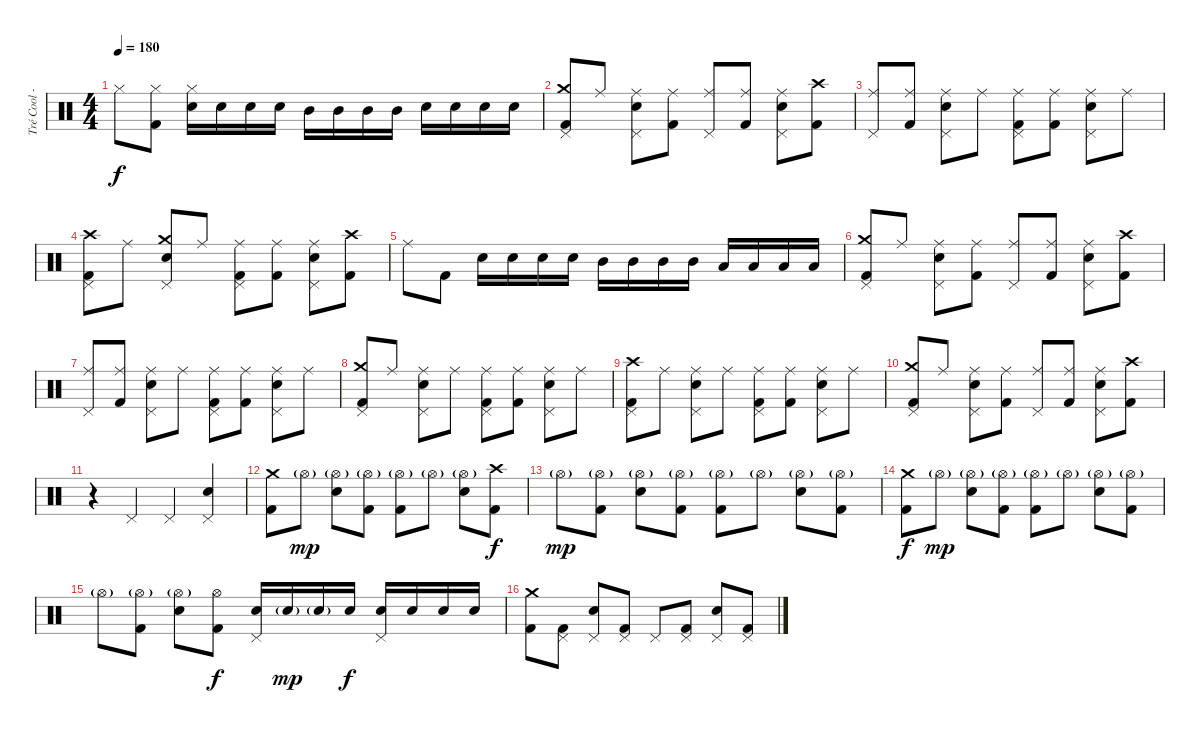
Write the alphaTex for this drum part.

\track ("Tré Cool - Drums" "Tré Cool -") {instrument percussion}
\staff {score}
\articulation defaults
\ts (4 4)
\tempo 180
\clef neutral
\ks c "Hi-Hat (closed)".8{dy f}
("Hi-Hat (closed)" "Kick (hit) 2").8 ("Hi-Hat (closed)" "Electric Snare (hit)").16 "Electric Snare (hit)".16 "Electric Snare (hit)".16 "Electric Snare (hit)".16 "Mid Tom (hit)".16 "Mid Tom (hit)".16 "Mid Tom (hit)".16 "Mid Tom (hit)".16 "Electric Snare (hit)".16 "Electric Snare (hit)".16 "Electric Snare (hit)".16 "Electric Snare (hit)".16 |
("Crash medium (hit)" "Pedal Hi-Hat (hit)" "Kick (hit) 2").8 "Ride (middle)".8 ("Ride (middle)" "Pedal Hi-Hat (hit)" "Electric Snare (hit)").8 ("Ride (middle)" "Kick (hit) 2").8 ("Ride (middle)" "Pedal Hi-Hat (hit)").8 ("Ride (middle)" "Kick (hit) 2").8 ("Ride (middle)" "Pedal Hi-Hat (hit)" "Electric Snare (hit)").8 ("Crash high (hit)" "Kick (hit) 2").8 |
("Ride (middle)" "Pedal Hi-Hat (hit)").8 ("Ride (middle)" "Kick (hit) 2").8 ("Ride (middle)" "Pedal Hi-Hat (hit)" "Electric Snare (hit)").8 "Ride (middle)".8 ("Ride (middle)" "Pedal Hi-Hat (hit)" "Kick (hit) 2").8 ("Ride (middle)" "Kick (hit) 2").8 ("Ride (middle)" "Pedal Hi-Hat (hit)" "Electric Snare (hit)").8 "Ride (middle)".8 |
("Crash high (hit)" "Pedal Hi-Hat (hit)" "Kick (hit) 2").8 "Ride (middle)".8 ("Crash medium (hit)" "Pedal Hi-Hat (hit)" "Electric Snare (hit)").8 "Ride (middle)".8 ("Ride (middle)" "Pedal Hi-Hat (hit)" "Kick (hit) 2").8 ("Ride (middle)" "Kick (hit) 2").8 ("Ride (middle)" "Pedal Hi-Hat (hit)" "Electric Snare (hit)").8 ("Crash high (hit)" "Kick (hit) 2").8 |
"Ride (middle)".8 "Kick (hit) 2".8 "Electric Snare (hit)".16 "Electric Snare (hit)".16 "Electric Snare (hit)".16 "Electric Snare (hit)".16 "Mid Tom (hit)".16 "Mid Tom (hit)".16 "Mid Tom (hit)".16 "Mid Tom (hit)".16 "Low Tom (hit)".16 "Low Tom (hit)".16 "Low Tom (hit)".16 "Low Tom (hit)".16 |
("Crash medium (hit)" "Pedal Hi-Hat (hit)" "Kick (hit) 2").8 "Ride (middle)".8 ("Ride (middle)" "Pedal Hi-Hat (hit)" "Electric Snare (hit)").8 ("Ride (middle)" "Kick (hit) 2").8 ("Ride (middle)" "Pedal Hi-Hat (hit)").8 ("Ride (middle)" "Kick (hit) 2").8 ("Ride (middle)" "Pedal Hi-Hat (hit)" "Electric Snare (hit)").8 ("Crash high (hit)" "Kick (hit) 2").8 |
("Ride (middle)" "Pedal Hi-Hat (hit)").8 ("Ride (middle)" "Kick (hit) 2").8 ("Ride (middle)" "Pedal Hi-Hat (hit)" "Electric Snare (hit)").8 "Ride (middle)".8 ("Ride (middle)" "Pedal Hi-Hat (hit)" "Kick (hit) 2").8 ("Ride (middle)" "Kick (hit) 2").8 ("Ride (middle)" "Pedal Hi-Hat (hit)" "Electric Snare (hit)").8 "Ride (middle)".8 |
("Crash medium (hit)" "Pedal Hi-Hat (hit)" "Kick (hit) 2").8 "Ride (middle)".8 ("Ride (middle)" "Pedal Hi-Hat (hit)" "Electric Snare (hit)").8 "Ride (middle)".8 ("Ride (middle)" "Pedal Hi-Hat (hit)" "Kick (hit) 2").8 ("Ride (middle)" "Kick (hit) 2").8 ("Ride (middle)" "Pedal Hi-Hat (hit)" "Electric Snare (hit)").8 "Ride (middle)".8 |
("Crash high (hit)" "Pedal Hi-Hat (hit)" "Kick (hit) 2").8 "Ride (middle)".8 ("Ride (middle)" "Pedal Hi-Hat (hit)" "Electric Snare (hit)").8 "Ride (middle)".8 ("Ride (middle)" "Pedal Hi-Hat (hit)" "Kick (hit) 2").8 ("Ride (middle)" "Kick (hit) 2").8 ("Ride (middle)" "Pedal Hi-Hat (hit)" "Electric Snare (hit)").8 "Ride (middle)".8 |
("Crash medium (hit)" "Pedal Hi-Hat (hit)" "Kick (hit) 2").8 "Ride (middle)".8 ("Ride (middle)" "Pedal Hi-Hat (hit)" "Electric Snare (hit)").8 ("Ride (middle)" "Kick (hit) 2").8 ("Ride (middle)" "Pedal Hi-Hat (hit)").8 ("Ride (middle)" "Kick (hit) 2").8 ("Ride (middle)" "Pedal Hi-Hat (hit)" "Electric Snare (hit)").8 ("Crash high (hit)" "Kick (hit) 2").8 |
r.4 "Pedal Hi-Hat (hit)".4 "Pedal Hi-Hat (hit)".4 ("Pedal Hi-Hat (hit)" "Electric Snare (hit)").4 |
("Crash medium (hit)" "Kick (hit) 2").8 "Hi-Hat (open)"{g}.8{dy mp} ("Hi-Hat (open)"{g} "Electric Snare (hit)").8 ("Hi-Hat (open)"{g} "Kick (hit) 2").8 ("Hi-Hat (open)"{g} "Kick (hit) 2").8 "Hi-Hat (open)"{g}.8 ("Hi-Hat (open)"{g} "Electric Snare (hit)").8 ("Crash high (hit)" "Kick (hit) 2").8{dy f} |
"Hi-Hat (open)"{g}.8{dy mp} ("Hi-Hat (open)"{g} "Kick (hit) 2").8 ("Hi-Hat (open)"{g} "Electric Snare (hit)").8 ("Hi-Hat (open)"{g} "Kick (hit) 2").8 ("Hi-Hat (open)"{g} "Kick (hit) 2").8 "Hi-Hat (open)"{g}.8 ("Hi-Hat (open)"{g} "Electric Snare (hit)").8 ("Hi-Hat (open)"{g} "Kick (hit) 2").8 |
("Crash medium (hit)" "Kick (hit) 2").8{dy f} "Hi-Hat (open)"{g}.8{dy mp} ("Hi-Hat (open)"{g} "Electric Snare (hit)").8 ("Hi-Hat (open)"{g} "Kick (hit) 2").8 ("Hi-Hat (open)"{g} "Kick (hit) 2").8 "Hi-Hat (open)"{g}.8 ("Hi-Hat (open)"{g} "Electric Snare (hit)").8 ("Hi-Hat (open)"{g} "Kick (hit) 2").8 |
"Hi-Hat (open)"{g}.8 ("Hi-Hat (open)"{g} "Kick (hit) 2").8 ("Hi-Hat (open)"{g} "Electric Snare (hit)").8 ("Hi-Hat (open)" "Kick (hit) 2").8{dy f} ("Pedal Hi-Hat (hit)" "Electric Snare (hit)").16 "Electric Snare (hit)"{g}.16{dy mp} "Electric Snare (hit)"{g}.16 "Electric Snare (hit)".16{dy f} ("Pedal Hi-Hat (hit)" "Electric Snare (hit)").16 "Electric Snare (hit)".16 "Electric Snare (hit)".16 "Electric Snare (hit)".16 |
("Crash medium (hit)" "Kick (hit) 2").8 ("Pedal Hi-Hat (hit)" "Kick (hit) 2").8 ("Pedal Hi-Hat (hit)" "Electric Snare (hit)").8 ("Pedal Hi-Hat (hit)" "Kick (hit) 2").8 "Pedal Hi-Hat (hit)".8 ("Pedal Hi-Hat (hit)" "Kick (hit) 2").8 ("Pedal Hi-Hat (hit)" "Electric Snare (hit)").8 ("Pedal Hi-Hat (hit)" "Kick (hit) 2").8
